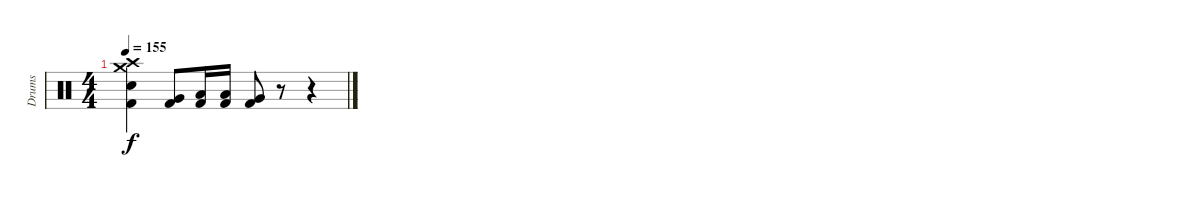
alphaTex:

\track ("Drums" "Drums") {instrument percussion}
\staff {score}
\articulation defaults
\ts (4 4)
\tempo 155
\clef neutral
\ks c
("Crash medium (hit)" "Crash high (hit)" "Electric Snare (hit)" "Kick (hit) 2").4{dy f} ("Very Low Tom (hit)" "Kick (hit) 2").8 ("Low Tom (hit)" "Kick (hit) 2").16 ("Low Tom (hit)" "Kick (hit) 2").16 ("Very Low Tom (hit)" "Kick (hit) 2").8 r.8 r.4
